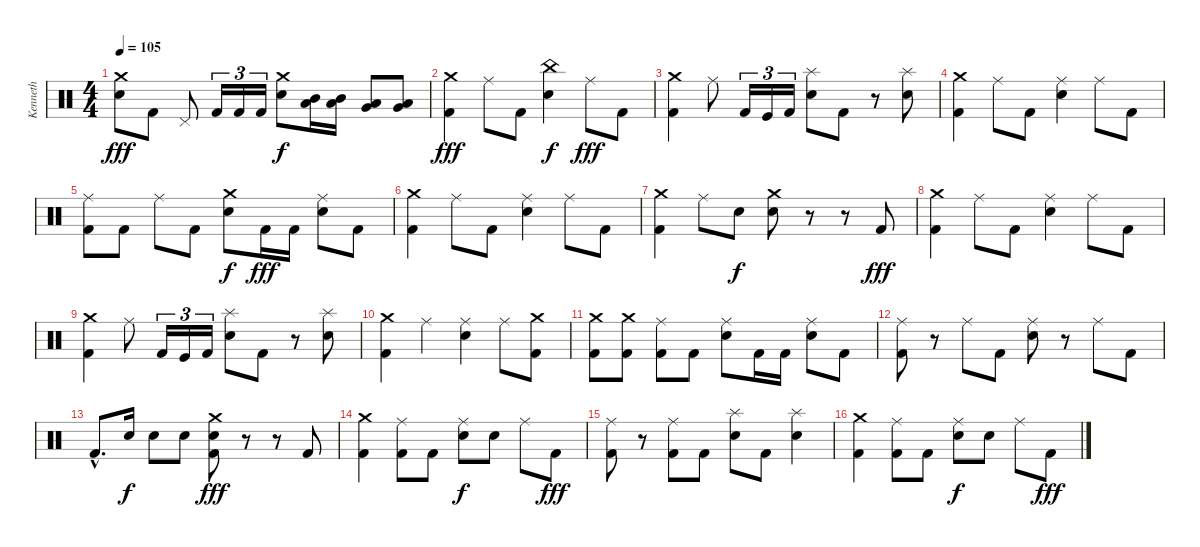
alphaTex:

\track ("Kenneth" "Kenneth") {instrument percussion}
\staff {score}
\articulation defaults
\ts (4 4)
\tempo 105
\clef neutral
\ks c
("Crash medium (hit)" "Electric Snare (hit)").8{dy fff} "Kick (hit) 2".8 "Pedal Hi-Hat (hit)".8 "Kick (hit) 2".16{tu (3 2)} "Kick (hit) 2".16{tu (3 2)} "Kick (hit) 2".16{tu (3 2)} ("Crash medium (hit)" "Electric Snare (hit)").8{dy f} ("Mid Tom (hit)" "Low Tom (hit)").16 ("Mid Tom (hit)" "Low Tom (hit)").16 ("Low Tom (hit)" "Very Low Tom (hit)").8 ("Low Floor Tom (hit)" "Very Low Tom (hit)").8 |
("Crash medium (hit)" "Kick (hit) 2").4{dy fff} "Ride (middle)".8 "Kick (hit) 2".8 ("China (hit)" "Electric Snare (hit)").4{dy f} "Ride (middle)".8{dy fff} "Kick (hit) 2".8 |
("Crash medium (hit)" "Kick (hit) 2").4 "Ride (middle)".8 "Kick (hit) 2".16{tu (3 2)} "Kick (hit)".16{tu (3 2)} "Kick (hit) 2".16{tu (3 2)} ("Splash (hit)" "Electric Snare (hit)").8 "Kick (hit) 2".8 r.8 ("Splash (hit)" "Electric Snare (hit)").8 |
("Crash medium (hit)" "Kick (hit) 2").4 "Ride (middle)".8 "Kick (hit) 2".8 ("Ride (middle)" "Electric Snare (hit)").4 "Ride (middle)".8 "Kick (hit) 2".8 |
("Ride (middle)" "Kick (hit) 2").8 "Kick (hit) 2".8 "Ride (middle)".8 "Kick (hit) 2".8 ("Crash medium (hit)" "Electric Snare (hit)").8{dy f} "Kick (hit) 2".16{dy fff} "Kick (hit) 2".16 ("Ride (middle)" "Electric Snare (hit)").8 "Kick (hit) 2".8 |
("Crash medium (hit)" "Kick (hit) 2").4 "Ride (middle)".8 "Kick (hit) 2".8 ("Ride (middle)" "Electric Snare (hit)").4 "Ride (middle)".8 "Kick (hit) 2".8 |
("Crash medium (hit)" "Kick (hit) 2").4 "Ride (middle)".8 "Electric Snare (hit)".8{dy f} ("Crash medium (hit)" "Electric Snare (hit)").8 r.8 r.8 "Kick (hit) 2".8{dy fff} |
("Crash medium (hit)" "Kick (hit) 2").4 "Ride (middle)".8 "Kick (hit) 2".8 ("Ride (middle)" "Electric Snare (hit)").4 "Ride (middle)".8 "Kick (hit) 2".8 |
("Crash medium (hit)" "Kick (hit) 2").4 "Ride (middle)".8 "Kick (hit) 2".16{tu (3 2)} "Kick (hit)".16{tu (3 2)} "Kick (hit) 2".16{tu (3 2)} ("Splash (hit)" "Electric Snare (hit)").8 "Kick (hit) 2".8 r.8 ("Splash (hit)" "Electric Snare (hit)").8 |
("Crash medium (hit)" "Kick (hit) 2").4 "Ride (middle)".4 ("Ride (middle)" "Electric Snare (hit)").4 "Ride (middle)".8 ("Crash medium (hit)" "Kick (hit) 2").8 |
("Crash medium (hit)" "Kick (hit) 2").8 ("Crash medium (hit)" "Kick (hit) 2").8 ("Ride (middle)" "Kick (hit) 2").8 "Kick (hit) 2".8 ("Ride (middle)" "Electric Snare (hit)").8 "Kick (hit) 2".16 "Kick (hit) 2".16 ("Ride (middle)" "Electric Snare (hit)").8 "Kick (hit) 2".8 |
("Ride (middle)" "Kick (hit) 2").8 r.8 "Ride (middle)".8 "Kick (hit) 2".8 ("Ride (middle)" "Electric Snare (hit)").8 r.8 "Ride (middle)".8 "Kick (hit) 2".8 |
"Kick (hit) 2"{hac}.8{d} "Electric Snare (hit)".16{dy f} "Electric Snare (hit)".8 "Electric Snare (hit)".8 ("Crash medium (hit)" "Electric Snare (hit)" "Kick (hit) 2").8{dy fff} r.8 r.8 "Kick (hit) 2".8 |
("Crash medium (hit)" "Kick (hit) 2").4 ("Ride (middle)" "Kick (hit) 2").8 "Kick (hit) 2".8 ("Ride (middle)" "Electric Snare (hit)").8{dy f} "Electric Snare (hit)".8 "Ride (middle)".8 "Kick (hit) 2".8{dy fff} |
("Ride (middle)" "Kick (hit) 2").8 r.8 ("Ride (middle)" "Kick (hit) 2").8 "Kick (hit) 2".8 ("Splash (hit)" "Electric Snare (hit)").8 "Kick (hit) 2".8 ("Splash (hit)" "Electric Snare (hit)").4 |
("Crash medium (hit)" "Kick (hit) 2").4 ("Ride (middle)" "Kick (hit) 2").8 "Kick (hit) 2".8 ("Ride (middle)" "Electric Snare (hit)").8{dy f} "Electric Snare (hit)".8 "Ride (middle)".8 "Kick (hit) 2".8{dy fff}
